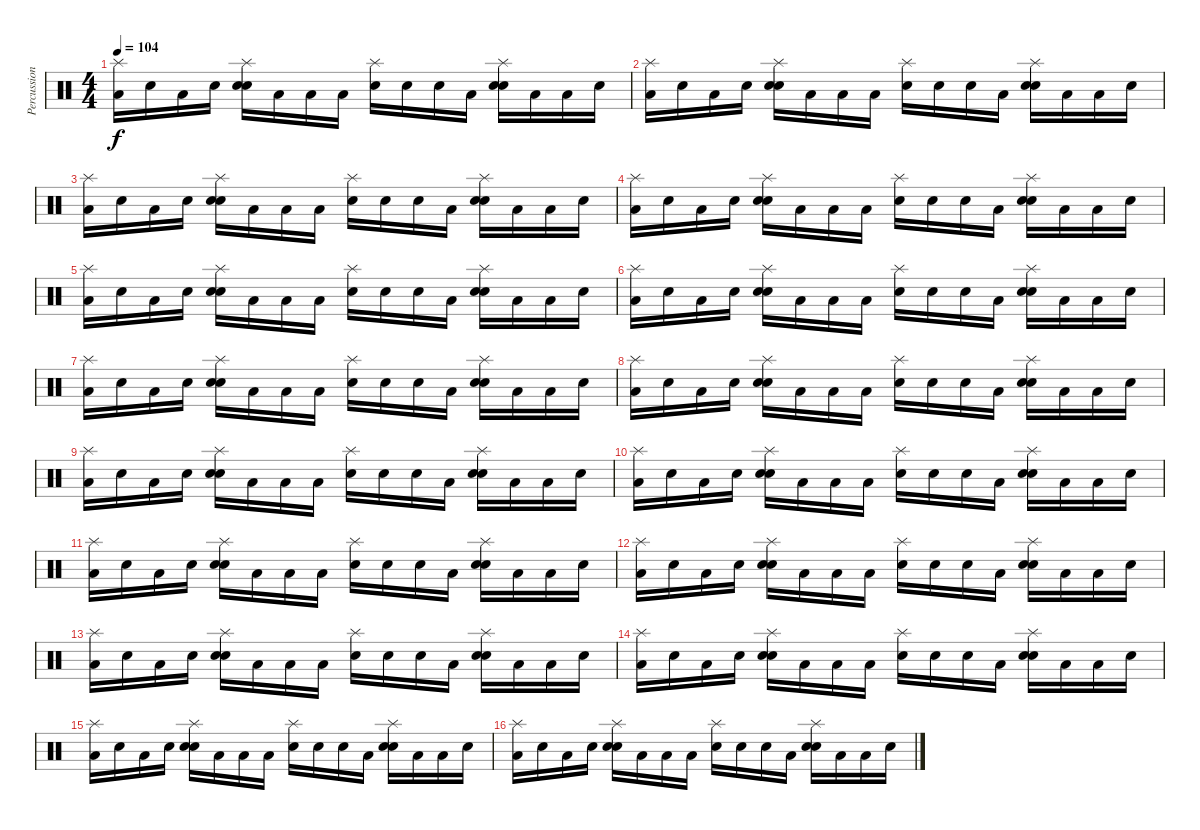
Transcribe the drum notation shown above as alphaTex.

\track ("Percussion" "Percussion") {instrument percussion}
\staff {score}
\articulation defaults
\ts (4 4)
\tempo 104
\clef neutral
\ks c
("Low Floor Tom (hit)" "Splash (hit)").16{dy f} "Snare (hit)".16 "Low Floor Tom (hit)".16 "Snare (hit)".16 ("Snare (hit)" "Splash (hit)" "Snare (hit) 2").16 "Low Floor Tom (hit)".16 "Low Floor Tom (hit)".16 "Low Floor Tom (hit)".16 ("Snare (hit)" "Splash (hit)").16 "Snare (hit)".16 "Snare (hit)".16 "Low Floor Tom (hit)".16 ("Snare (hit)" "Splash (hit)" "Snare (hit) 2").16 "Low Floor Tom (hit)".16 "Low Floor Tom (hit)".16 "Snare (hit)".16 |
("Low Floor Tom (hit)" "Splash (hit)").16 "Snare (hit)".16 "Low Floor Tom (hit)".16 "Snare (hit)".16 ("Snare (hit)" "Splash (hit)" "Snare (hit) 2").16 "Low Floor Tom (hit)".16 "Low Floor Tom (hit)".16 "Low Floor Tom (hit)".16 ("Snare (hit)" "Splash (hit)").16 "Snare (hit)".16 "Snare (hit)".16 "Low Floor Tom (hit)".16 ("Snare (hit)" "Splash (hit)" "Snare (hit) 2").16 "Low Floor Tom (hit)".16 "Low Floor Tom (hit)".16 "Snare (hit)".16 |
("Low Floor Tom (hit)" "Splash (hit)").16 "Snare (hit)".16 "Low Floor Tom (hit)".16 "Snare (hit)".16 ("Snare (hit)" "Splash (hit)" "Snare (hit) 2").16 "Low Floor Tom (hit)".16 "Low Floor Tom (hit)".16 "Low Floor Tom (hit)".16 ("Snare (hit)" "Splash (hit)").16 "Snare (hit)".16 "Snare (hit)".16 "Low Floor Tom (hit)".16 ("Snare (hit)" "Splash (hit)" "Snare (hit) 2").16 "Low Floor Tom (hit)".16 "Low Floor Tom (hit)".16 "Snare (hit)".16 |
("Low Floor Tom (hit)" "Splash (hit)").16 "Snare (hit)".16 "Low Floor Tom (hit)".16 "Snare (hit)".16 ("Snare (hit)" "Splash (hit)" "Snare (hit) 2").16 "Low Floor Tom (hit)".16 "Low Floor Tom (hit)".16 "Low Floor Tom (hit)".16 ("Snare (hit)" "Splash (hit)").16 "Snare (hit)".16 "Snare (hit)".16 "Low Floor Tom (hit)".16 ("Snare (hit)" "Splash (hit)" "Snare (hit) 2").16 "Low Floor Tom (hit)".16 "Low Floor Tom (hit)".16 "Snare (hit)".16 |
("Low Floor Tom (hit)" "Splash (hit)").16 "Snare (hit)".16 "Low Floor Tom (hit)".16 "Snare (hit)".16 ("Snare (hit)" "Splash (hit)" "Snare (hit) 2").16 "Low Floor Tom (hit)".16 "Low Floor Tom (hit)".16 "Low Floor Tom (hit)".16 ("Snare (hit)" "Splash (hit)").16 "Snare (hit)".16 "Snare (hit)".16 "Low Floor Tom (hit)".16 ("Snare (hit)" "Splash (hit)" "Snare (hit) 2").16 "Low Floor Tom (hit)".16 "Low Floor Tom (hit)".16 "Snare (hit)".16 |
("Low Floor Tom (hit)" "Splash (hit)").16 "Snare (hit)".16 "Low Floor Tom (hit)".16 "Snare (hit)".16 ("Snare (hit)" "Splash (hit)" "Snare (hit) 2").16 "Low Floor Tom (hit)".16 "Low Floor Tom (hit)".16 "Low Floor Tom (hit)".16 ("Snare (hit)" "Splash (hit)").16 "Snare (hit)".16 "Snare (hit)".16 "Low Floor Tom (hit)".16 ("Snare (hit)" "Splash (hit)" "Snare (hit) 2").16 "Low Floor Tom (hit)".16 "Low Floor Tom (hit)".16 "Snare (hit)".16 |
("Low Floor Tom (hit)" "Splash (hit)").16 "Snare (hit)".16 "Low Floor Tom (hit)".16 "Snare (hit)".16 ("Snare (hit)" "Splash (hit)" "Snare (hit) 2").16 "Low Floor Tom (hit)".16 "Low Floor Tom (hit)".16 "Low Floor Tom (hit)".16 ("Snare (hit)" "Splash (hit)").16 "Snare (hit)".16 "Snare (hit)".16 "Low Floor Tom (hit)".16 ("Snare (hit)" "Splash (hit)" "Snare (hit) 2").16 "Low Floor Tom (hit)".16 "Low Floor Tom (hit)".16 "Snare (hit)".16 |
("Low Floor Tom (hit)" "Splash (hit)").16 "Snare (hit)".16 "Low Floor Tom (hit)".16 "Snare (hit)".16 ("Snare (hit)" "Splash (hit)" "Snare (hit) 2").16 "Low Floor Tom (hit)".16 "Low Floor Tom (hit)".16 "Low Floor Tom (hit)".16 ("Snare (hit)" "Splash (hit)").16 "Snare (hit)".16 "Snare (hit)".16 "Low Floor Tom (hit)".16 ("Snare (hit)" "Splash (hit)" "Snare (hit) 2").16 "Low Floor Tom (hit)".16 "Low Floor Tom (hit)".16 "Snare (hit)".16 |
("Low Floor Tom (hit)" "Splash (hit)").16 "Snare (hit)".16 "Low Floor Tom (hit)".16 "Snare (hit)".16 ("Snare (hit)" "Splash (hit)" "Snare (hit) 2").16 "Low Floor Tom (hit)".16 "Low Floor Tom (hit)".16 "Low Floor Tom (hit)".16 ("Snare (hit)" "Splash (hit)").16 "Snare (hit)".16 "Snare (hit)".16 "Low Floor Tom (hit)".16 ("Snare (hit)" "Splash (hit)" "Snare (hit) 2").16 "Low Floor Tom (hit)".16 "Low Floor Tom (hit)".16 "Snare (hit)".16 |
("Low Floor Tom (hit)" "Splash (hit)").16 "Snare (hit)".16 "Low Floor Tom (hit)".16 "Snare (hit)".16 ("Snare (hit)" "Splash (hit)" "Snare (hit) 2").16 "Low Floor Tom (hit)".16 "Low Floor Tom (hit)".16 "Low Floor Tom (hit)".16 ("Snare (hit)" "Splash (hit)").16 "Snare (hit)".16 "Snare (hit)".16 "Low Floor Tom (hit)".16 ("Snare (hit)" "Splash (hit)" "Snare (hit) 2").16 "Low Floor Tom (hit)".16 "Low Floor Tom (hit)".16 "Snare (hit)".16 |
("Low Floor Tom (hit)" "Splash (hit)").16 "Snare (hit)".16 "Low Floor Tom (hit)".16 "Snare (hit)".16 ("Snare (hit)" "Splash (hit)" "Snare (hit) 2").16 "Low Floor Tom (hit)".16 "Low Floor Tom (hit)".16 "Low Floor Tom (hit)".16 ("Snare (hit)" "Splash (hit)").16 "Snare (hit)".16 "Snare (hit)".16 "Low Floor Tom (hit)".16 ("Snare (hit)" "Splash (hit)" "Snare (hit) 2").16 "Low Floor Tom (hit)".16 "Low Floor Tom (hit)".16 "Snare (hit)".16 |
("Low Floor Tom (hit)" "Splash (hit)").16 "Snare (hit)".16 "Low Floor Tom (hit)".16 "Snare (hit)".16 ("Snare (hit)" "Splash (hit)" "Snare (hit) 2").16 "Low Floor Tom (hit)".16 "Low Floor Tom (hit)".16 "Low Floor Tom (hit)".16 ("Snare (hit)" "Splash (hit)").16 "Snare (hit)".16 "Snare (hit)".16 "Low Floor Tom (hit)".16 ("Snare (hit)" "Splash (hit)" "Snare (hit) 2").16 "Low Floor Tom (hit)".16 "Low Floor Tom (hit)".16 "Snare (hit)".16 |
("Low Floor Tom (hit)" "Splash (hit)").16 "Snare (hit)".16 "Low Floor Tom (hit)".16 "Snare (hit)".16 ("Snare (hit)" "Splash (hit)" "Snare (hit) 2").16 "Low Floor Tom (hit)".16 "Low Floor Tom (hit)".16 "Low Floor Tom (hit)".16 ("Snare (hit)" "Splash (hit)").16 "Snare (hit)".16 "Snare (hit)".16 "Low Floor Tom (hit)".16 ("Snare (hit)" "Splash (hit)" "Snare (hit) 2").16 "Low Floor Tom (hit)".16 "Low Floor Tom (hit)".16 "Snare (hit)".16 |
("Low Floor Tom (hit)" "Splash (hit)").16 "Snare (hit)".16 "Low Floor Tom (hit)".16 "Snare (hit)".16 ("Snare (hit)" "Splash (hit)" "Snare (hit) 2").16 "Low Floor Tom (hit)".16 "Low Floor Tom (hit)".16 "Low Floor Tom (hit)".16 ("Snare (hit)" "Splash (hit)").16 "Snare (hit)".16 "Snare (hit)".16 "Low Floor Tom (hit)".16 ("Snare (hit)" "Splash (hit)" "Snare (hit) 2").16 "Low Floor Tom (hit)".16 "Low Floor Tom (hit)".16 "Snare (hit)".16 |
("Low Floor Tom (hit)" "Splash (hit)").16 "Snare (hit)".16 "Low Floor Tom (hit)".16 "Snare (hit)".16 ("Snare (hit)" "Splash (hit)" "Snare (hit) 2").16 "Low Floor Tom (hit)".16 "Low Floor Tom (hit)".16 "Low Floor Tom (hit)".16 ("Snare (hit)" "Splash (hit)").16 "Snare (hit)".16 "Snare (hit)".16 "Low Floor Tom (hit)".16 ("Snare (hit)" "Splash (hit)" "Snare (hit) 2").16 "Low Floor Tom (hit)".16 "Low Floor Tom (hit)".16 "Snare (hit)".16 |
("Low Floor Tom (hit)" "Splash (hit)").16 "Snare (hit)".16 "Low Floor Tom (hit)".16 "Snare (hit)".16 ("Snare (hit)" "Splash (hit)" "Snare (hit) 2").16 "Low Floor Tom (hit)".16 "Low Floor Tom (hit)".16 "Low Floor Tom (hit)".16 ("Snare (hit)" "Splash (hit)").16 "Snare (hit)".16 "Snare (hit)".16 "Low Floor Tom (hit)".16 ("Snare (hit)" "Splash (hit)" "Snare (hit) 2").16 "Low Floor Tom (hit)".16 "Low Floor Tom (hit)".16 "Snare (hit)".16
